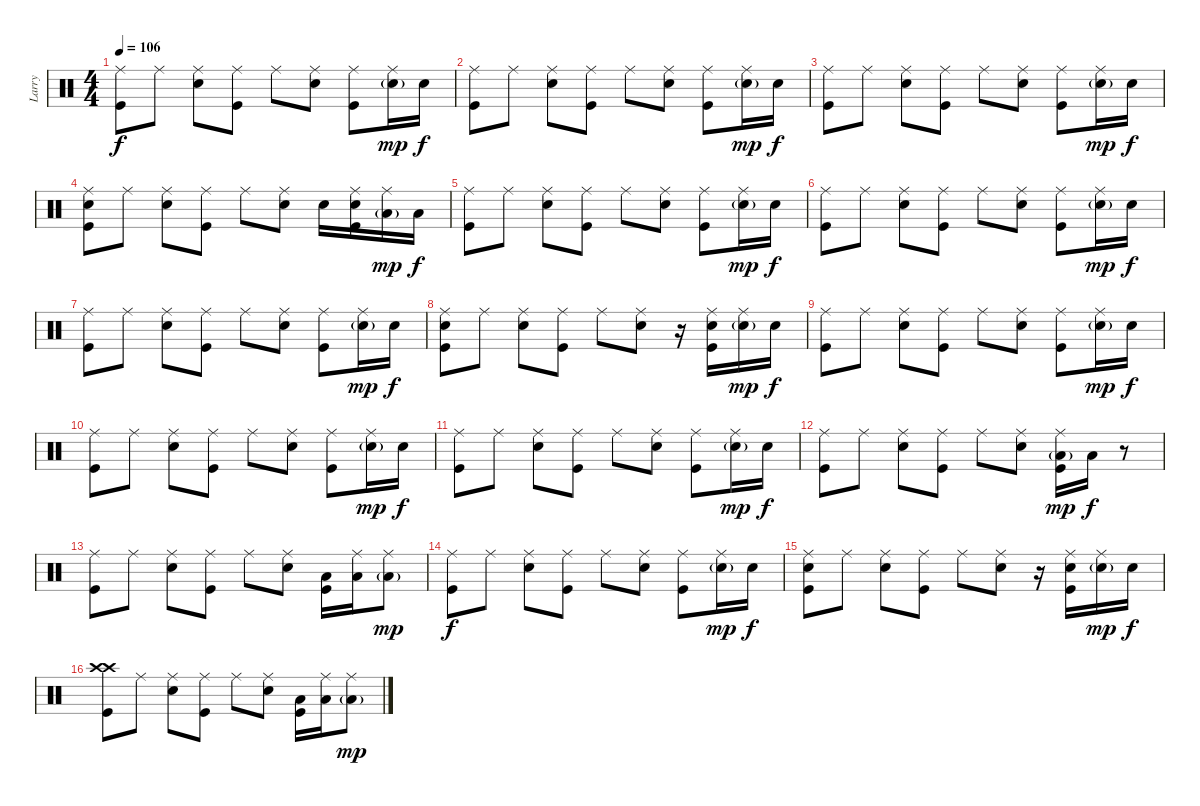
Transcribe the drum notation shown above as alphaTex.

\track ("Larry" "Larry") {instrument percussion}
\staff {score}
\articulation defaults
\ts (4 4)
\tempo 106
\clef neutral
\ks c
("Ride (middle)" "Kick (hit)").8{dy f} "Ride (middle)".8 ("Ride (middle)" "Snare (hit) 2").8 ("Ride (middle)" "Kick (hit)").8 "Ride (middle)".8 ("Ride (middle)" "Snare (hit) 2").8 ("Ride (middle)" "Kick (hit)").8 ("Ride (middle)" "Snare (hit) 2"{g}).16{dy mp} "Snare (hit) 2".16{dy f} |
("Ride (middle)" "Kick (hit)").8 "Ride (middle)".8 ("Ride (middle)" "Snare (hit) 2").8 ("Ride (middle)" "Kick (hit)").8 "Ride (middle)".8 ("Ride (middle)" "Snare (hit) 2").8 ("Ride (middle)" "Kick (hit)").8 ("Ride (middle)" "Snare (hit) 2"{g}).16{dy mp} "Snare (hit) 2".16{dy f} |
("Ride (middle)" "Kick (hit)").8 "Ride (middle)".8 ("Ride (middle)" "Snare (hit) 2").8 ("Ride (middle)" "Kick (hit)").8 "Ride (middle)".8 ("Ride (middle)" "Snare (hit) 2").8 ("Ride (middle)" "Kick (hit)").8 ("Ride (middle)" "Snare (hit) 2"{g}).16{dy mp} "Snare (hit) 2".16{dy f} |
("Ride (middle)" "Snare (hit) 2" "Kick (hit)").8 "Ride (middle)".8 ("Ride (middle)" "Snare (hit) 2").8 ("Ride (middle)" "Kick (hit)").8 "Ride (middle)".8 ("Ride (middle)" "Snare (hit) 2").8 "Snare (hit) 2".16 ("Ride (middle)" "Snare (hit) 2" "Kick (hit)").16 ("Ride (middle)" "Low Tom (hit)"{g}).16{dy mp} "Low Tom (hit)".16{dy f} |
("Ride (middle)" "Kick (hit)").8 "Ride (middle)".8 ("Ride (middle)" "Snare (hit) 2").8 ("Ride (middle)" "Kick (hit)").8 "Ride (middle)".8 ("Ride (middle)" "Snare (hit) 2").8 ("Ride (middle)" "Kick (hit)").8 ("Ride (middle)" "Snare (hit) 2"{g}).16{dy mp} "Snare (hit) 2".16{dy f} |
("Ride (middle)" "Kick (hit)").8 "Ride (middle)".8 ("Ride (middle)" "Snare (hit) 2").8 ("Ride (middle)" "Kick (hit)").8 "Ride (middle)".8 ("Ride (middle)" "Snare (hit) 2").8 ("Ride (middle)" "Kick (hit)").8 ("Ride (middle)" "Snare (hit) 2"{g}).16{dy mp} "Snare (hit) 2".16{dy f} |
("Ride (middle)" "Kick (hit)").8 "Ride (middle)".8 ("Ride (middle)" "Snare (hit) 2").8 ("Ride (middle)" "Kick (hit)").8 "Ride (middle)".8 ("Ride (middle)" "Snare (hit) 2").8 ("Ride (middle)" "Kick (hit)").8 ("Ride (middle)" "Snare (hit) 2"{g}).16{dy mp} "Snare (hit) 2".16{dy f} |
("Ride (middle)" "Snare (hit) 2" "Kick (hit)").8 "Ride (middle)".8 ("Ride (middle)" "Snare (hit) 2").8 ("Ride (middle)" "Kick (hit)").8 "Ride (middle)".8 ("Ride (middle)" "Snare (hit) 2").8 r.16 ("Ride (middle)" "Snare (hit) 2" "Kick (hit)").16 ("Ride (middle)" "Snare (hit) 2"{g}).16{dy mp} "Snare (hit) 2".16{dy f} |
("Ride (middle)" "Kick (hit)").8 "Ride (middle)".8 ("Ride (middle)" "Snare (hit) 2").8 ("Ride (middle)" "Kick (hit)").8 "Ride (middle)".8 ("Ride (middle)" "Snare (hit) 2").8 ("Ride (middle)" "Kick (hit)").8 ("Ride (middle)" "Snare (hit) 2"{g}).16{dy mp} "Snare (hit) 2".16{dy f} |
("Ride (middle)" "Kick (hit)").8 "Ride (middle)".8 ("Ride (middle)" "Snare (hit) 2").8 ("Ride (middle)" "Kick (hit)").8 "Ride (middle)".8 ("Ride (middle)" "Snare (hit) 2").8 ("Ride (middle)" "Kick (hit)").8 ("Ride (middle)" "Snare (hit) 2"{g}).16{dy mp} "Snare (hit) 2".16{dy f} |
("Ride (middle)" "Kick (hit)").8 "Ride (middle)".8 ("Ride (middle)" "Snare (hit) 2").8 ("Ride (middle)" "Kick (hit)").8 "Ride (middle)".8 ("Ride (middle)" "Snare (hit) 2").8 ("Ride (middle)" "Kick (hit)").8 ("Ride (middle)" "Snare (hit) 2"{g}).16{dy mp} "Snare (hit) 2".16{dy f} |
("Ride (middle)" "Kick (hit)").8 "Ride (middle)".8 ("Ride (middle)" "Snare (hit) 2").8 ("Ride (middle)" "Kick (hit)").8 "Ride (middle)".8 ("Ride (middle)" "Snare (hit) 2").8 ("Ride (middle)" "Low Tom (hit)"{g} "Kick (hit)").16{dy mp} "Low Tom (hit)".16{dy f} r.8 |
("Ride (middle)" "Kick (hit)").8 "Ride (middle)".8 ("Ride (middle)" "Snare (hit) 2").8 ("Ride (middle)" "Kick (hit)").8 "Ride (middle)".8 ("Ride (middle)" "Snare (hit) 2").8 ("Low Tom (hit)" "Kick (hit)").16 ("Ride (middle)" "Low Tom (hit)").16 ("Ride (middle)" "Low Tom (hit)"{g}).8{dy mp} |
("Ride (middle)" "Kick (hit)").8{dy f} "Ride (middle)".8 ("Ride (middle)" "Snare (hit) 2").8 ("Ride (middle)" "Kick (hit)").8 "Ride (middle)".8 ("Ride (middle)" "Snare (hit) 2").8 ("Ride (middle)" "Kick (hit)").8 ("Ride (middle)" "Snare (hit) 2"{g}).16{dy mp} "Snare (hit) 2".16{dy f} |
("Ride (middle)" "Snare (hit) 2" "Kick (hit)").8 "Ride (middle)".8 ("Ride (middle)" "Snare (hit) 2").8 ("Ride (middle)" "Kick (hit)").8 "Ride (middle)".8 ("Ride (middle)" "Snare (hit) 2").8 r.16 ("Ride (middle)" "Snare (hit) 2" "Kick (hit)").16 ("Ride (middle)" "Snare (hit) 2"{g}).16{dy mp} "Snare (hit) 2".16{dy f} |
("Crash high (hit)" "Crash high (hit)" "Kick (hit)").8 "Ride (middle)".8 ("Ride (middle)" "Snare (hit) 2").8 ("Ride (middle)" "Kick (hit)").8 "Ride (middle)".8 ("Ride (middle)" "Snare (hit) 2").8 ("Low Tom (hit)" "Kick (hit)").16 ("Ride (middle)" "Low Tom (hit)").16 ("Ride (middle)" "Low Tom (hit)"{g}).8{dy mp}
